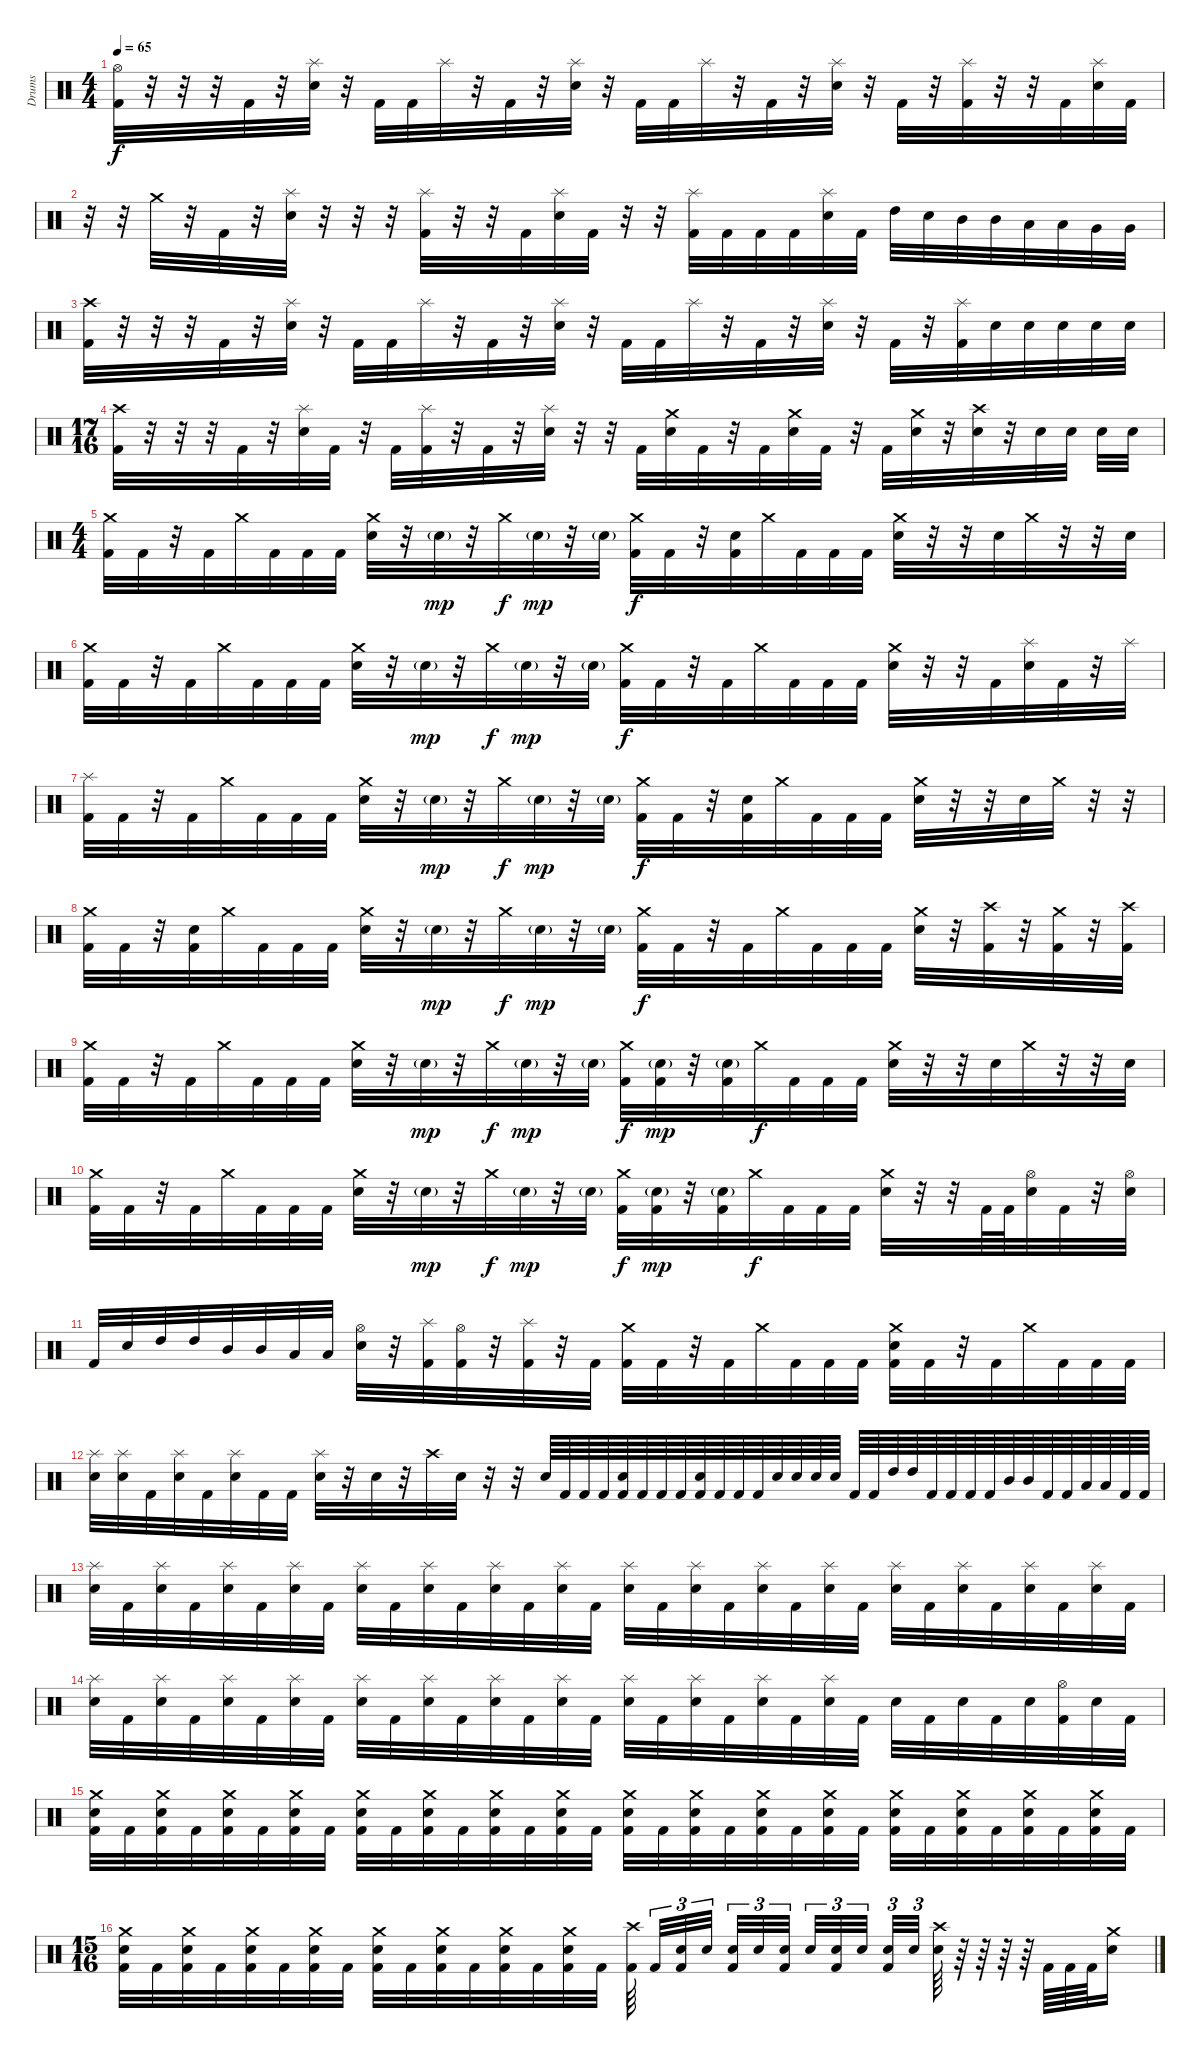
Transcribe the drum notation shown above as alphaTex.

\track ("Drums" "Drums") {instrument percussion}
\staff {score}
\articulation defaults
\ts (4 4)
\tempo 65
\clef neutral
\ks c
("Hi-Hat (open)" "Kick (hit) 2").32{dy f} r.32 r.32 r.32 "Kick (hit) 2".32 r.32 ("Splash (hit)" "Electric Snare (hit)").32 r.32 "Kick (hit) 2".32 "Kick (hit) 2".32 "Splash (hit)".32 r.32 "Kick (hit) 2".32 r.32 ("Splash (hit)" "Electric Snare (hit)").32 r.32 "Kick (hit) 2".32 "Kick (hit) 2".32 "Splash (hit)".32 r.32 "Kick (hit) 2".32 r.32 ("Splash (hit)" "Electric Snare (hit)").32 r.32 "Kick (hit) 2".32 r.32 ("Splash (hit)" "Kick (hit) 2").32 r.32 r.32 "Kick (hit) 2".32 ("Splash (hit)" "Electric Snare (hit)").32 "Kick (hit) 2".32 |
r.32 r.32 "Crash medium (hit)".32 r.32 "Kick (hit) 2".32 r.32 ("Splash (hit)" "Electric Snare (hit)").32 r.32 r.32 r.32 ("Splash (hit)" "Kick (hit) 2").32 r.32 r.32 "Kick (hit) 2".32 ("Splash (hit)" "Electric Snare (hit)").32 "Kick (hit) 2".32 r.32 r.32 ("Splash (hit)" "Kick (hit) 2").32 "Kick (hit) 2".32 "Kick (hit) 2".32 "Kick (hit) 2".32 ("Splash (hit)" "Electric Snare (hit)").32 "Kick (hit) 2".32 "High Tom (hit)".32 "Electric Snare (hit)".32 "Mid Tom (hit)".32 "Mid Tom (hit)".32 "Low Tom (hit)".32 "Low Tom (hit)".32 "Very Low Tom (hit)".32 "Very Low Tom (hit)".32 |
("Crash high (hit)" "Kick (hit) 2").32 r.32 r.32 r.32 "Kick (hit) 2".32 r.32 ("Splash (hit)" "Electric Snare (hit)").32 r.32 "Kick (hit) 2".32 "Kick (hit) 2".32 "Splash (hit)".32 r.32 "Kick (hit) 2".32 r.32 ("Splash (hit)" "Electric Snare (hit)").32 r.32 "Kick (hit) 2".32 "Kick (hit) 2".32 "Splash (hit)".32 r.32 "Kick (hit) 2".32 r.32 ("Splash (hit)" "Electric Snare (hit)").32 r.32 "Kick (hit) 2".32 r.32 ("Splash (hit)" "Kick (hit) 2").32 "Electric Snare (hit)".32 "Electric Snare (hit)".32 "Electric Snare (hit)".32 "Electric Snare (hit)".32 "Electric Snare (hit)".32 |
\ts (17 16)
("Crash high (hit)" "Kick (hit) 2").32 r.32 r.32 r.32 "Kick (hit) 2".32 r.32 ("Splash (hit)" "Electric Snare (hit)").32 "Kick (hit) 2".32 r.32 "Kick (hit) 2".32 ("Splash (hit)" "Kick (hit) 2").32 r.32 "Kick (hit) 2".32 r.32 ("Splash (hit)" "Electric Snare (hit)").32 r.32 r.32 "Kick (hit) 2".32 ("Crash medium (hit)" "Electric Snare (hit)").32 "Kick (hit) 2".32 r.32 "Kick (hit) 2".32 ("Crash medium (hit)" "Electric Snare (hit)").32 "Kick (hit) 2".32 r.32 "Kick (hit) 2".32 ("Crash medium (hit)" "Electric Snare (hit)").32 r.32 ("Crash high (hit)" "Electric Snare (hit)").32 r.32 "Electric Snare (hit)".32 "Electric Snare (hit)".32 "Electric Snare (hit)".32 "Electric Snare (hit)".32 |
\ts (4 4)
("Crash medium (hit)" "Kick (hit) 2").32 "Kick (hit) 2".32 r.32 "Kick (hit) 2".32 "Crash medium (hit)".32 "Kick (hit) 2".32 "Kick (hit) 2".32 "Kick (hit) 2".32 ("Crash medium (hit)" "Electric Snare (hit)").32 r.32 "Electric Snare (hit)"{g}.32{dy mp} r.32 "Crash medium (hit)".32{dy f} "Electric Snare (hit)"{g}.32{dy mp} r.32 "Electric Snare (hit)"{g}.32 ("Crash medium (hit)" "Kick (hit) 2").32{dy f} "Kick (hit) 2".32 r.32 ("Electric Snare (hit)" "Kick (hit) 2").32 "Crash medium (hit)".32 "Kick (hit) 2".32 "Kick (hit) 2".32 "Kick (hit) 2".32 ("Crash medium (hit)" "Electric Snare (hit)").32 r.32 r.32 "Electric Snare (hit)".32 "Crash medium (hit)".32 r.32 r.32 "Electric Snare (hit)".32 |
("Crash medium (hit)" "Kick (hit) 2").32 "Kick (hit) 2".32 r.32 "Kick (hit) 2".32 "Crash medium (hit)".32 "Kick (hit) 2".32 "Kick (hit) 2".32 "Kick (hit) 2".32 ("Crash medium (hit)" "Electric Snare (hit)").32 r.32 "Electric Snare (hit)"{g}.32{dy mp} r.32 "Crash medium (hit)".32{dy f} "Electric Snare (hit)"{g}.32{dy mp} r.32 "Electric Snare (hit)"{g}.32 ("Crash medium (hit)" "Kick (hit) 2").32{dy f} "Kick (hit) 2".32 r.32 "Kick (hit) 2".32 "Crash medium (hit)".32 "Kick (hit) 2".32 "Kick (hit) 2".32 "Kick (hit) 2".32 ("Crash medium (hit)" "Electric Snare (hit)").32 r.32 r.32 "Kick (hit) 2".32 ("Splash (hit)" "Electric Snare (hit)").32 "Kick (hit) 2".32 r.32 "Splash (hit)".32 |
("Splash (hit)" "Kick (hit) 2").32 "Kick (hit) 2".32 r.32 "Kick (hit) 2".32 "Crash medium (hit)".32 "Kick (hit) 2".32 "Kick (hit) 2".32 "Kick (hit) 2".32 ("Crash medium (hit)" "Electric Snare (hit)").32 r.32 "Electric Snare (hit)"{g}.32{dy mp} r.32 "Crash medium (hit)".32{dy f} "Electric Snare (hit)"{g}.32{dy mp} r.32 "Electric Snare (hit)"{g}.32 ("Crash medium (hit)" "Kick (hit) 2").32{dy f} "Kick (hit) 2".32 r.32 ("Electric Snare (hit)" "Kick (hit) 2").32 "Crash medium (hit)".32 "Kick (hit) 2".32 "Kick (hit) 2".32 "Kick (hit) 2".32 ("Crash medium (hit)" "Electric Snare (hit)").32 r.32 r.32 "Electric Snare (hit)".32 "Crash medium (hit)".32 r.32 r.32 |
("Crash medium (hit)" "Kick (hit) 2").32 "Kick (hit) 2".32 r.32 ("Electric Snare (hit)" "Kick (hit) 2").32 "Crash medium (hit)".32 "Kick (hit) 2".32 "Kick (hit) 2".32 "Kick (hit) 2".32 ("Crash medium (hit)" "Electric Snare (hit)").32 r.32 "Electric Snare (hit)"{g}.32{dy mp} r.32 "Crash medium (hit)".32{dy f} "Electric Snare (hit)"{g}.32{dy mp} r.32 "Electric Snare (hit)"{g}.32 ("Crash medium (hit)" "Kick (hit) 2").32{dy f} "Kick (hit) 2".32 r.32 "Kick (hit) 2".32 "Crash medium (hit)".32 "Kick (hit) 2".32 "Kick (hit) 2".32 "Kick (hit) 2".32 ("Crash medium (hit)" "Electric Snare (hit)").32 r.32 ("Crash high (hit)" "Kick (hit) 2").32 r.32 ("Crash medium (hit)" "Kick (hit) 2").32 r.32 ("Crash high (hit)" "Kick (hit) 2").32 |
("Crash medium (hit)" "Kick (hit) 2").32 "Kick (hit) 2".32 r.32 "Kick (hit) 2".32 "Crash medium (hit)".32 "Kick (hit) 2".32 "Kick (hit) 2".32 "Kick (hit) 2".32 ("Crash medium (hit)" "Electric Snare (hit)").32 r.32 "Electric Snare (hit)"{g}.32{dy mp} r.32 "Crash medium (hit)".32{dy f} "Electric Snare (hit)"{g}.32{dy mp} r.32 "Electric Snare (hit)"{g}.32 ("Crash medium (hit)" "Kick (hit) 2").32{dy f} ("Electric Snare (hit)"{g} "Kick (hit) 2").32{dy mp} r.32 ("Electric Snare (hit)"{g} "Kick (hit) 2").32 "Crash medium (hit)".32{dy f} "Kick (hit) 2".32 "Kick (hit) 2".32 "Kick (hit) 2".32 ("Crash medium (hit)" "Electric Snare (hit)").32 r.32 r.32 "Electric Snare (hit)".32 "Crash medium (hit)".32 r.32 r.32 "Electric Snare (hit)".32 |
("Crash medium (hit)" "Kick (hit) 2").32 "Kick (hit) 2".32 r.32 "Kick (hit) 2".32 "Crash medium (hit)".32 "Kick (hit) 2".32 "Kick (hit) 2".32 "Kick (hit) 2".32 ("Crash medium (hit)" "Electric Snare (hit)").32 r.32 "Electric Snare (hit)"{g}.32{dy mp} r.32 "Crash medium (hit)".32{dy f} "Electric Snare (hit)"{g}.32{dy mp} r.32 "Electric Snare (hit)"{g}.32 ("Crash medium (hit)" "Kick (hit) 2").32{dy f} ("Electric Snare (hit)"{g} "Kick (hit) 2").32{dy mp} r.32 ("Electric Snare (hit)"{g} "Kick (hit) 2").32 "Crash medium (hit)".32{dy f} "Kick (hit) 2".32 "Kick (hit) 2".32 "Kick (hit) 2".32 ("Crash medium (hit)" "Electric Snare (hit)").32 r.32 r.32 "Kick (hit) 2".64 "Kick (hit) 2".64 ("Hi-Hat (open)" "Electric Snare (hit)").32 "Kick (hit) 2".32 r.32 ("Hi-Hat (open)" "Electric Snare (hit)").32 |
"Kick (hit) 2".32 "Electric Snare (hit)".32 "High Tom (hit)".32 "High Tom (hit)".32 "Mid Tom (hit)".32 "Mid Tom (hit)".32 "Low Tom (hit)".32 "Low Tom (hit)".32 ("Hi-Hat (open)" "Electric Snare (hit)").32 r.32 ("Splash (hit)" "Kick (hit) 2").32 ("Hi-Hat (open)" "Kick (hit) 2").32 r.32 ("Splash (hit)" "Kick (hit) 2").32 r.32 "Kick (hit) 2".32 ("Crash medium (hit)" "Kick (hit) 2").32 "Kick (hit) 2".32 r.32 "Kick (hit) 2".32 "Crash medium (hit)".32 "Kick (hit) 2".32 "Kick (hit) 2".32 "Kick (hit) 2".32 ("Crash medium (hit)" "Electric Snare (hit)" "Kick (hit) 2").32 "Kick (hit) 2".32 r.32 "Kick (hit) 2".32 "Crash medium (hit)".32 "Kick (hit) 2".32 "Kick (hit) 2".32 "Kick (hit) 2".32 |
("Splash (hit)" "Electric Snare (hit)").32 ("Splash (hit)" "Electric Snare (hit)").32 "Kick (hit) 2".32 ("Splash (hit)" "Electric Snare (hit)").32 "Kick (hit) 2".32 ("Splash (hit)" "Electric Snare (hit)").32 "Kick (hit) 2".32 "Kick (hit) 2".32 ("Splash (hit)" "Electric Snare (hit)").32 r.32 "Electric Snare (hit)".32 r.32 "Crash high (hit)".32 "Electric Snare (hit)".32 r.32 r.32 "Electric Snare (hit)".64 "Kick (hit) 2".64 "Kick (hit) 2".64 "Kick (hit) 2".64 ("Electric Snare (hit)" "Kick (hit) 2").64 "Kick (hit) 2".64 "Kick (hit) 2".64 "Kick (hit) 2".64 ("Electric Snare (hit)" "Kick (hit) 2").64 "Kick (hit) 2".64 "Kick (hit) 2".64 "Kick (hit) 2".64 "Electric Snare (hit)".64 "Electric Snare (hit)".64 "Electric Snare (hit)".64 "Electric Snare (hit)".64 "Kick (hit) 2".64 "Kick (hit) 2".64 "High Tom (hit)".64 "High Tom (hit)".64 "Kick (hit) 2".64 "Kick (hit) 2".64 "Kick (hit) 2".64 "Kick (hit) 2".64 "Mid Tom (hit)".64 "Mid Tom (hit)".64 "Kick (hit) 2".64 "Kick (hit) 2".64 "Low Tom (hit)".64 "Low Tom (hit)".64 "Kick (hit) 2".64 "Kick (hit) 2".64 |
("Splash (hit)" "Electric Snare (hit)").32 "Kick (hit) 2".32 ("Splash (hit)" "Electric Snare (hit)").32 "Kick (hit) 2".32 ("Splash (hit)" "Electric Snare (hit)").32 "Kick (hit) 2".32 ("Splash (hit)" "Electric Snare (hit)").32 "Kick (hit) 2".32 ("Splash (hit)" "Electric Snare (hit)").32 "Kick (hit) 2".32 ("Splash (hit)" "Electric Snare (hit)").32 "Kick (hit) 2".32 ("Splash (hit)" "Electric Snare (hit)").32 "Kick (hit) 2".32 ("Splash (hit)" "Electric Snare (hit)").32 "Kick (hit) 2".32 ("Splash (hit)" "Electric Snare (hit)").32 "Kick (hit) 2".32 ("Splash (hit)" "Electric Snare (hit)").32 "Kick (hit) 2".32 ("Splash (hit)" "Electric Snare (hit)").32 "Kick (hit) 2".32 ("Splash (hit)" "Electric Snare (hit)").32 "Kick (hit) 2".32 ("Splash (hit)" "Electric Snare (hit)").32 "Kick (hit) 2".32 ("Splash (hit)" "Electric Snare (hit)").32 "Kick (hit) 2".32 ("Splash (hit)" "Electric Snare (hit)").32 "Kick (hit) 2".32 ("Splash (hit)" "Electric Snare (hit)").32 "Kick (hit) 2".32 |
("Splash (hit)" "Electric Snare (hit)").32 "Kick (hit) 2".32 ("Splash (hit)" "Electric Snare (hit)").32 "Kick (hit) 2".32 ("Splash (hit)" "Electric Snare (hit)").32 "Kick (hit) 2".32 ("Splash (hit)" "Electric Snare (hit)").32 "Kick (hit) 2".32 ("Splash (hit)" "Electric Snare (hit)").32 "Kick (hit) 2".32 ("Splash (hit)" "Electric Snare (hit)").32 "Kick (hit) 2".32 ("Splash (hit)" "Electric Snare (hit)").32 "Kick (hit) 2".32 ("Splash (hit)" "Electric Snare (hit)").32 "Kick (hit) 2".32 ("Splash (hit)" "Electric Snare (hit)").32 "Kick (hit) 2".32 ("Splash (hit)" "Electric Snare (hit)").32 "Kick (hit) 2".32 ("Splash (hit)" "Electric Snare (hit)").32 "Kick (hit) 2".32 ("Splash (hit)" "Electric Snare (hit)").32 "Kick (hit) 2".32 "Electric Snare (hit)".32 "Kick (hit) 2".32 "Electric Snare (hit)".32 "Kick (hit) 2".32 "Electric Snare (hit)".32 ("Hi-Hat (open)" "Kick (hit) 2").32 "Electric Snare (hit)".32 "Kick (hit) 2".32 |
("Crash medium (hit)" "Electric Snare (hit)" "Kick (hit) 2").32 "Kick (hit) 2".32 ("Crash medium (hit)" "Electric Snare (hit)" "Kick (hit) 2").32 "Kick (hit) 2".32 ("Crash medium (hit)" "Electric Snare (hit)" "Kick (hit) 2").32 "Kick (hit) 2".32 ("Crash medium (hit)" "Electric Snare (hit)" "Kick (hit) 2").32 "Kick (hit) 2".32 ("Crash medium (hit)" "Electric Snare (hit)" "Kick (hit) 2").32 "Kick (hit) 2".32 ("Crash medium (hit)" "Electric Snare (hit)" "Kick (hit) 2").32 "Kick (hit) 2".32 ("Crash medium (hit)" "Electric Snare (hit)" "Kick (hit) 2").32 "Kick (hit) 2".32 ("Crash medium (hit)" "Electric Snare (hit)" "Kick (hit) 2").32 "Kick (hit) 2".32 ("Crash medium (hit)" "Electric Snare (hit)" "Kick (hit) 2").32 "Kick (hit) 2".32 ("Crash medium (hit)" "Electric Snare (hit)" "Kick (hit) 2").32 "Kick (hit) 2".32 ("Crash medium (hit)" "Electric Snare (hit)" "Kick (hit) 2").32 "Kick (hit) 2".32 ("Crash medium (hit)" "Electric Snare (hit)" "Kick (hit) 2").32 "Kick (hit) 2".32 ("Crash medium (hit)" "Electric Snare (hit)" "Kick (hit) 2").32 "Kick (hit) 2".32 ("Crash medium (hit)" "Electric Snare (hit)" "Kick (hit) 2").32 "Kick (hit) 2".32 ("Crash medium (hit)" "Electric Snare (hit)" "Kick (hit) 2").32 "Kick (hit) 2".32 ("Crash medium (hit)" "Electric Snare (hit)" "Kick (hit) 2").32 "Kick (hit) 2".32 |
\ts (15 16)
("Crash medium (hit)" "Electric Snare (hit)" "Kick (hit) 2").32 "Kick (hit) 2".32 ("Crash medium (hit)" "Electric Snare (hit)" "Kick (hit) 2").32 "Kick (hit) 2".32 ("Crash medium (hit)" "Electric Snare (hit)" "Kick (hit) 2").32 "Kick (hit) 2".32 ("Crash medium (hit)" "Electric Snare (hit)" "Kick (hit) 2").32 "Kick (hit) 2".32 ("Crash medium (hit)" "Electric Snare (hit)" "Kick (hit) 2").32 "Kick (hit) 2".32 ("Crash medium (hit)" "Electric Snare (hit)" "Kick (hit) 2").32 "Kick (hit) 2".32 ("Crash medium (hit)" "Electric Snare (hit)" "Kick (hit) 2").32 "Kick (hit) 2".32 ("Crash medium (hit)" "Electric Snare (hit)" "Kick (hit) 2").32 "Kick (hit) 2".32 ("Crash high (hit)" "Kick (hit) 2").64{beam splitsecondary} "Kick (hit) 2".32{tu (3 2)} ("Electric Snare (hit)" "Kick (hit) 2").32{tu (3 2)} "Electric Snare (hit)".32{tu (3 2)} ("Electric Snare (hit)" "Kick (hit) 2").32{tu (3 2)} "Electric Snare (hit)".32{tu (3 2)} ("Electric Snare (hit)" "Kick (hit) 2").32{tu (3 2) beam splitsecondary} "Electric Snare (hit)".32{tu (3 2)} ("Electric Snare (hit)" "Kick (hit) 2").32{tu (3 2)} "Electric Snare (hit)".32{tu (3 2) beam splitsecondary} ("Electric Snare (hit)" "Kick (hit) 2").32{tu (3 2)} "Electric Snare (hit)".32{tu (3 2) beam splitsecondary} ("Crash high (hit)" "Electric Snare (hit)").64 r.64 r.64 r.64 r.64 "Kick (hit) 2".64 "Kick (hit) 2".64 "Kick (hit) 2".64 ("Crash medium (hit)" "Electric Snare (hit)").16
